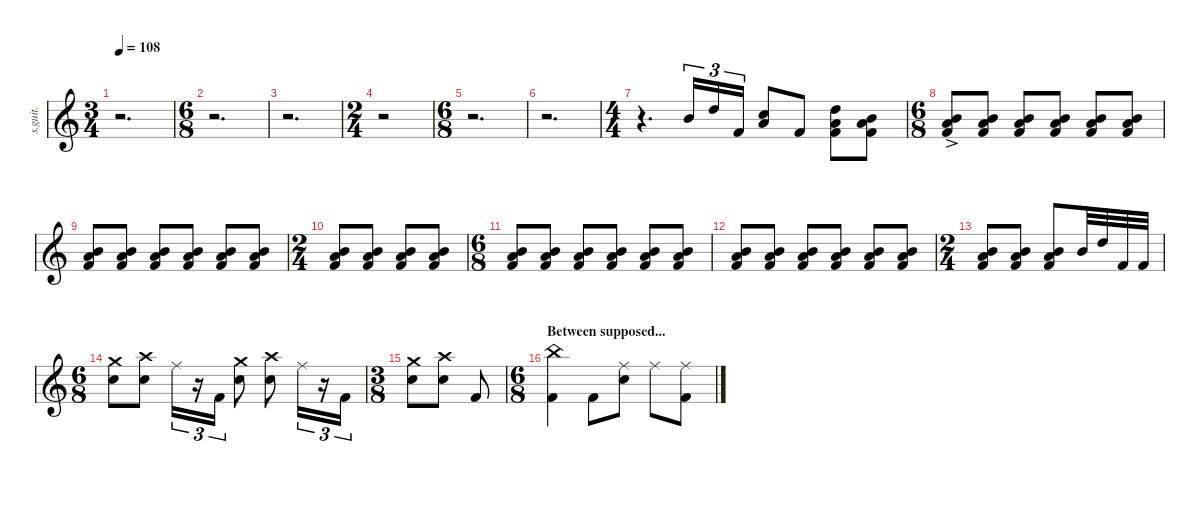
\defaultSystemsLayout 4
\hideDynamics
\bracketExtendMode nobrackets
\track ("Danny Carey" "s.guit.") {instrument percussion}
\staff {score}
\articulation defaults
\ts (3 4)
\beaming (8 2 2 2 2)
\tempo 108
\clef g2
\ks c
r.2{d dy f} |
\ts (6 8)
\beaming (8 2 2 2 2)
r.2{d} |
r.2{d} |
\ts (2 4)
\beaming (8 2 2 2 2)
r.2 |
\ts (6 8)
\beaming (8 2 2 2 2)
r.2{d} |
r.2{d} |
\ts (4 4)
\beaming (8 2 2 2 2)
r.4{d} "Mid Tom (hit)".16{tu (3 2) lyrics (0 "") lyrics (1 "") lyrics (2 "") lyrics (3 "") lyrics (4 "")} "High Tom (hit)".16{tu (3 2) lyrics (0 "") lyrics (1 "") lyrics (2 "") lyrics (3 "") lyrics (4 "")} "Kick (hit) 2".16{tu (3 2) lyrics (0 "") lyrics (1 "") lyrics (2 "") lyrics (3 "") lyrics (4 "")} ("Snare (hit) 2" "Low Floor Tom (hit)").8{lyrics (0 "") lyrics (1 "") lyrics (2 "") lyrics (3 "") lyrics (4 "")} "Kick (hit) 2".8{lyrics (0 "") lyrics (1 "") lyrics (2 "") lyrics (3 "") lyrics (4 "")} ("Kick (hit) 2" "Low Floor Tom (hit)" "High Tom (hit)").8{lyrics (0 "") lyrics (1 "") lyrics (2 "") lyrics (3 "") lyrics (4 "")} ("Kick (hit) 2" "Mid Tom (hit)" "Low Floor Tom (hit)").8{lyrics (0 "") lyrics (1 "") lyrics (2 "") lyrics (3 "") lyrics (4 "")} |
\ts (6 8)
\beaming (8 2 2 2 2)
("Kick (hit) 2"{ac} "Mid Tom (hit)"{ac} "Low Floor Tom (hit)"{ac}).8{lyrics (0 "") lyrics (1 "") lyrics (2 "") lyrics (3 "") lyrics (4 "")} ("Kick (hit) 2" "Mid Tom (hit)" "Low Floor Tom (hit)").8{lyrics (0 "") lyrics (1 "") lyrics (2 "") lyrics (3 "") lyrics (4 "")} ("Kick (hit) 2" "Mid Tom (hit)" "Low Floor Tom (hit)").8{lyrics (0 "") lyrics (1 "") lyrics (2 "") lyrics (3 "") lyrics (4 "")} ("Kick (hit) 2" "Mid Tom (hit)" "Low Floor Tom (hit)").8{lyrics (0 "") lyrics (1 "") lyrics (2 "") lyrics (3 "") lyrics (4 "")} ("Kick (hit) 2" "Mid Tom (hit)" "Low Floor Tom (hit)").8{lyrics (0 "") lyrics (1 "") lyrics (2 "") lyrics (3 "") lyrics (4 "")} ("Kick (hit) 2" "Mid Tom (hit)" "Low Floor Tom (hit)").8{lyrics (0 "") lyrics (1 "") lyrics (2 "") lyrics (3 "") lyrics (4 "")} |
("Kick (hit) 2" "Mid Tom (hit)" "Low Floor Tom (hit)").8{lyrics (0 "") lyrics (1 "") lyrics (2 "") lyrics (3 "") lyrics (4 "")} ("Kick (hit) 2" "Mid Tom (hit)" "Low Floor Tom (hit)").8{lyrics (0 "") lyrics (1 "") lyrics (2 "") lyrics (3 "") lyrics (4 "")} ("Kick (hit) 2" "Mid Tom (hit)" "Low Floor Tom (hit)").8{lyrics (0 "") lyrics (1 "") lyrics (2 "") lyrics (3 "") lyrics (4 "")} ("Kick (hit) 2" "Mid Tom (hit)" "Low Floor Tom (hit)").8{lyrics (0 "") lyrics (1 "") lyrics (2 "") lyrics (3 "") lyrics (4 "")} ("Kick (hit) 2" "Mid Tom (hit)" "Low Floor Tom (hit)").8{lyrics (0 "") lyrics (1 "") lyrics (2 "") lyrics (3 "") lyrics (4 "")} ("Kick (hit) 2" "Mid Tom (hit)" "Low Floor Tom (hit)").8{lyrics (0 "") lyrics (1 "") lyrics (2 "") lyrics (3 "") lyrics (4 "")} |
\ts (2 4)
\beaming (8 2 2 2 2)
("Kick (hit) 2" "Mid Tom (hit)" "Low Floor Tom (hit)").8{lyrics (0 "") lyrics (1 "") lyrics (2 "") lyrics (3 "") lyrics (4 "")} ("Kick (hit) 2" "Mid Tom (hit)" "Low Floor Tom (hit)").8{lyrics (0 "") lyrics (1 "") lyrics (2 "") lyrics (3 "") lyrics (4 "")} ("Kick (hit) 2" "Mid Tom (hit)" "Low Floor Tom (hit)").8{lyrics (0 "") lyrics (1 "") lyrics (2 "") lyrics (3 "") lyrics (4 "")} ("Kick (hit) 2" "Mid Tom (hit)" "Low Floor Tom (hit)").8{lyrics (0 "") lyrics (1 "") lyrics (2 "") lyrics (3 "") lyrics (4 "")} |
\ts (6 8)
\beaming (8 2 2 2 2)
("Kick (hit) 2" "Mid Tom (hit)" "Low Floor Tom (hit)").8{lyrics (0 "") lyrics (1 "") lyrics (2 "") lyrics (3 "") lyrics (4 "")} ("Kick (hit) 2" "Mid Tom (hit)" "Low Floor Tom (hit)").8{lyrics (0 "") lyrics (1 "") lyrics (2 "") lyrics (3 "") lyrics (4 "")} ("Kick (hit) 2" "Mid Tom (hit)" "Low Floor Tom (hit)").8{lyrics (0 "") lyrics (1 "") lyrics (2 "") lyrics (3 "") lyrics (4 "")} ("Kick (hit) 2" "Mid Tom (hit)" "Low Floor Tom (hit)").8{lyrics (0 "") lyrics (1 "") lyrics (2 "") lyrics (3 "") lyrics (4 "")} ("Kick (hit) 2" "Mid Tom (hit)" "Low Floor Tom (hit)").8{lyrics (0 "") lyrics (1 "") lyrics (2 "") lyrics (3 "") lyrics (4 "")} ("Kick (hit) 2" "Mid Tom (hit)" "Low Floor Tom (hit)").8{lyrics (0 "") lyrics (1 "") lyrics (2 "") lyrics (3 "") lyrics (4 "")} |
("Kick (hit) 2" "Mid Tom (hit)" "Low Floor Tom (hit)").8{lyrics (0 "") lyrics (1 "") lyrics (2 "") lyrics (3 "") lyrics (4 "")} ("Kick (hit) 2" "Mid Tom (hit)" "Low Floor Tom (hit)").8{lyrics (0 "") lyrics (1 "") lyrics (2 "") lyrics (3 "") lyrics (4 "")} ("Kick (hit) 2" "Mid Tom (hit)" "Low Floor Tom (hit)").8{lyrics (0 "") lyrics (1 "") lyrics (2 "") lyrics (3 "") lyrics (4 "")} ("Kick (hit) 2" "Mid Tom (hit)" "Low Floor Tom (hit)").8{lyrics (0 "") lyrics (1 "") lyrics (2 "") lyrics (3 "") lyrics (4 "")} ("Kick (hit) 2" "Mid Tom (hit)" "Low Floor Tom (hit)").8{lyrics (0 "") lyrics (1 "") lyrics (2 "") lyrics (3 "") lyrics (4 "")} ("Kick (hit) 2" "Mid Tom (hit)" "Low Floor Tom (hit)").8{lyrics (0 "") lyrics (1 "") lyrics (2 "") lyrics (3 "") lyrics (4 "")} |
\ts (2 4)
\beaming (8 2 2 2 2)
("Kick (hit) 2" "Mid Tom (hit)" "Low Floor Tom (hit)").8{lyrics (0 "") lyrics (1 "") lyrics (2 "") lyrics (3 "") lyrics (4 "")} ("Kick (hit) 2" "Mid Tom (hit)" "Low Floor Tom (hit)").8{lyrics (0 "") lyrics (1 "") lyrics (2 "") lyrics (3 "") lyrics (4 "")} ("Kick (hit) 2" "Mid Tom (hit)" "Low Floor Tom (hit)").8{lyrics (0 "") lyrics (1 "") lyrics (2 "") lyrics (3 "") lyrics (4 "")} "Mid Tom (hit)".32{lyrics (0 "") lyrics (1 "") lyrics (2 "") lyrics (3 "") lyrics (4 "")} "High Tom (hit)".32{lyrics (0 "") lyrics (1 "") lyrics (2 "") lyrics (3 "") lyrics (4 "")} "Kick (hit) 2".32{lyrics (0 "") lyrics (1 "") lyrics (2 "") lyrics (3 "") lyrics (4 "")} "Kick (hit) 2".32{lyrics (0 "") lyrics (1 "") lyrics (2 "") lyrics (3 "") lyrics (4 "")} |
\ts (6 8)
\beaming (8 2 2 2 2)
("Crash medium (hit)" "Snare (hit) 2").8{lyrics (0 "") lyrics (1 "") lyrics (2 "") lyrics (3 "") lyrics (4 "")} ("Crash high (hit)" "Snare (hit) 2").8{lyrics (0 "") lyrics (1 "") lyrics (2 "") lyrics (3 "") lyrics (4 "")} "Ride (middle)".16{tu (3 2) lyrics (0 "") lyrics (1 "") lyrics (2 "") lyrics (3 "") lyrics (4 "")} r.16{tu (3 2)} "Kick (hit) 2".16{tu (3 2) lyrics (0 "") lyrics (1 "") lyrics (2 "") lyrics (3 "") lyrics (4 "")} ("Crash medium (hit)" "Snare (hit) 2").8{lyrics (0 "") lyrics (1 "") lyrics (2 "") lyrics (3 "") lyrics (4 "")} ("Crash high (hit)" "Snare (hit) 2").8{lyrics (0 "") lyrics (1 "") lyrics (2 "") lyrics (3 "") lyrics (4 "")} "Ride (middle)".16{tu (3 2) lyrics (0 "") lyrics (1 "") lyrics (2 "") lyrics (3 "") lyrics (4 "")} r.16{tu (3 2)} "Kick (hit) 2".16{tu (3 2) lyrics (0 "") lyrics (1 "") lyrics (2 "") lyrics (3 "") lyrics (4 "")} |
\ts (3 8)
\beaming (8 2 2 2 2)
("Crash medium (hit)" "Snare (hit) 2").8{lyrics (0 "") lyrics (1 "") lyrics (2 "") lyrics (3 "") lyrics (4 "")} ("Crash high (hit)" "Snare (hit) 2").8{lyrics (0 "") lyrics (1 "") lyrics (2 "") lyrics (3 "") lyrics (4 "")} "Kick (hit) 2".8{lyrics (0 "") lyrics (1 "") lyrics (2 "") lyrics (3 "") lyrics (4 "")} |
\ts (6 8)
\beaming (8 2 2 2 2)
\section ("" "Between supposed...")
("Kick (hit) 2" "China (hit)").4{lyrics (0 "") lyrics (1 "") lyrics (2 "") lyrics (3 "") lyrics (4 "")} "Kick (hit) 2".8{lyrics (0 "") lyrics (1 "") lyrics (2 "") lyrics (3 "") lyrics (4 "")} ("Ride (middle)" "Snare (hit) 2").8{lyrics (0 "") lyrics (1 "") lyrics (2 "") lyrics (3 "") lyrics (4 "")} "Ride (middle)".8{lyrics (0 "") lyrics (1 "") lyrics (2 "") lyrics (3 "") lyrics (4 "")} ("Ride (middle)" "Kick (hit) 2").8{lyrics (0 "") lyrics (1 "") lyrics (2 "") lyrics (3 "") lyrics (4 "")}
